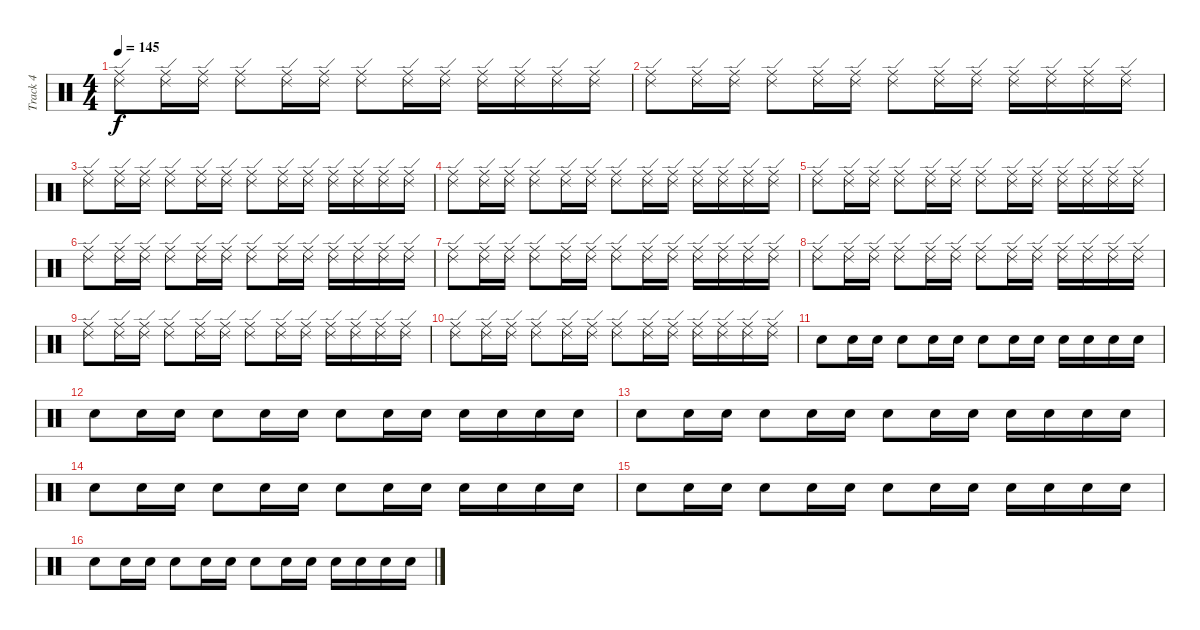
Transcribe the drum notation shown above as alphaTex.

\track ("Track 4" "Track 4") {instrument percussion}
\staff {score}
\articulation defaults
\ts (4 4)
\tempo 145
\clef neutral
\ks c
("Ride (middle)" "Ride (edge) 2").8{dy f} ("Ride (middle)" "Ride (edge) 2").16 ("Ride (middle)" "Ride (edge) 2").16 ("Ride (middle)" "Ride (edge) 2").8 ("Ride (middle)" "Ride (edge) 2").16 ("Ride (middle)" "Ride (edge) 2").16 ("Ride (middle)" "Ride (edge) 2").8 ("Ride (middle)" "Ride (edge) 2").16 ("Ride (middle)" "Ride (edge) 2").16 ("Ride (middle)" "Ride (edge) 2").16 ("Ride (middle)" "Ride (edge) 2").16 ("Ride (middle)" "Ride (edge) 2").16 ("Ride (middle)" "Ride (edge) 2").16 |
("Ride (middle)" "Ride (edge) 2").8 ("Ride (middle)" "Ride (edge) 2").16 ("Ride (middle)" "Ride (edge) 2").16 ("Ride (middle)" "Ride (edge) 2").8 ("Ride (middle)" "Ride (edge) 2").16 ("Ride (middle)" "Ride (edge) 2").16 ("Ride (middle)" "Ride (edge) 2").8 ("Ride (middle)" "Ride (edge) 2").16 ("Ride (middle)" "Ride (edge) 2").16 ("Ride (middle)" "Ride (edge) 2").16 ("Ride (middle)" "Ride (edge) 2").16 ("Ride (middle)" "Ride (edge) 2").16 ("Ride (middle)" "Ride (edge) 2").16 |
("Ride (middle)" "Ride (edge) 2").8 ("Ride (middle)" "Ride (edge) 2").16 ("Ride (middle)" "Ride (edge) 2").16 ("Ride (middle)" "Ride (edge) 2").8 ("Ride (middle)" "Ride (edge) 2").16 ("Ride (middle)" "Ride (edge) 2").16 ("Ride (middle)" "Ride (edge) 2").8 ("Ride (middle)" "Ride (edge) 2").16 ("Ride (middle)" "Ride (edge) 2").16 ("Ride (middle)" "Ride (edge) 2").16 ("Ride (middle)" "Ride (edge) 2").16 ("Ride (middle)" "Ride (edge) 2").16 ("Ride (middle)" "Ride (edge) 2").16 |
("Ride (middle)" "Ride (edge) 2").8 ("Ride (middle)" "Ride (edge) 2").16 ("Ride (middle)" "Ride (edge) 2").16 ("Ride (middle)" "Ride (edge) 2").8 ("Ride (middle)" "Ride (edge) 2").16 ("Ride (middle)" "Ride (edge) 2").16 ("Ride (middle)" "Ride (edge) 2").8 ("Ride (middle)" "Ride (edge) 2").16 ("Ride (middle)" "Ride (edge) 2").16 ("Ride (middle)" "Ride (edge) 2").16 ("Ride (middle)" "Ride (edge) 2").16 ("Ride (middle)" "Ride (edge) 2").16 ("Ride (middle)" "Ride (edge) 2").16 |
("Ride (middle)" "Ride (edge) 2").8 ("Ride (middle)" "Ride (edge) 2").16 ("Ride (middle)" "Ride (edge) 2").16 ("Ride (middle)" "Ride (edge) 2").8 ("Ride (middle)" "Ride (edge) 2").16 ("Ride (middle)" "Ride (edge) 2").16 ("Ride (middle)" "Ride (edge) 2").8 ("Ride (middle)" "Ride (edge) 2").16 ("Ride (middle)" "Ride (edge) 2").16 ("Ride (middle)" "Ride (edge) 2").16 ("Ride (middle)" "Ride (edge) 2").16 ("Ride (middle)" "Ride (edge) 2").16 ("Ride (middle)" "Ride (edge) 2").16 |
("Ride (middle)" "Ride (edge) 2").8 ("Ride (middle)" "Ride (edge) 2").16 ("Ride (middle)" "Ride (edge) 2").16 ("Ride (middle)" "Ride (edge) 2").8 ("Ride (middle)" "Ride (edge) 2").16 ("Ride (middle)" "Ride (edge) 2").16 ("Ride (middle)" "Ride (edge) 2").8 ("Ride (middle)" "Ride (edge) 2").16 ("Ride (middle)" "Ride (edge) 2").16 ("Ride (middle)" "Ride (edge) 2").16 ("Ride (middle)" "Ride (edge) 2").16 ("Ride (middle)" "Ride (edge) 2").16 ("Ride (middle)" "Ride (edge) 2").16 |
("Ride (middle)" "Ride (edge) 2").8 ("Ride (middle)" "Ride (edge) 2").16 ("Ride (middle)" "Ride (edge) 2").16 ("Ride (middle)" "Ride (edge) 2").8 ("Ride (middle)" "Ride (edge) 2").16 ("Ride (middle)" "Ride (edge) 2").16 ("Ride (middle)" "Ride (edge) 2").8 ("Ride (middle)" "Ride (edge) 2").16 ("Ride (middle)" "Ride (edge) 2").16 ("Ride (middle)" "Ride (edge) 2").16 ("Ride (middle)" "Ride (edge) 2").16 ("Ride (middle)" "Ride (edge) 2").16 ("Ride (middle)" "Ride (edge) 2").16 |
("Ride (middle)" "Ride (edge) 2").8 ("Ride (middle)" "Ride (edge) 2").16 ("Ride (middle)" "Ride (edge) 2").16 ("Ride (middle)" "Ride (edge) 2").8 ("Ride (middle)" "Ride (edge) 2").16 ("Ride (middle)" "Ride (edge) 2").16 ("Ride (middle)" "Ride (edge) 2").8 ("Ride (middle)" "Ride (edge) 2").16 ("Ride (middle)" "Ride (edge) 2").16 ("Ride (middle)" "Ride (edge) 2").16 ("Ride (middle)" "Ride (edge) 2").16 ("Ride (middle)" "Ride (edge) 2").16 ("Ride (middle)" "Ride (edge) 2").16 |
("Ride (middle)" "Ride (edge) 2").8 ("Ride (middle)" "Ride (edge) 2").16 ("Ride (middle)" "Ride (edge) 2").16 ("Ride (middle)" "Ride (edge) 2").8 ("Ride (middle)" "Ride (edge) 2").16 ("Ride (middle)" "Ride (edge) 2").16 ("Ride (middle)" "Ride (edge) 2").8 ("Ride (middle)" "Ride (edge) 2").16 ("Ride (middle)" "Ride (edge) 2").16 ("Ride (middle)" "Ride (edge) 2").16 ("Ride (middle)" "Ride (edge) 2").16 ("Ride (middle)" "Ride (edge) 2").16 ("Ride (middle)" "Ride (edge) 2").16 |
("Ride (middle)" "Ride (edge) 2").8 ("Ride (middle)" "Ride (edge) 2").16 ("Ride (middle)" "Ride (edge) 2").16 ("Ride (middle)" "Ride (edge) 2").8 ("Ride (middle)" "Ride (edge) 2").16 ("Ride (middle)" "Ride (edge) 2").16 ("Ride (middle)" "Ride (edge) 2").8 ("Ride (middle)" "Ride (edge) 2").16 ("Ride (middle)" "Ride (edge) 2").16 ("Ride (middle)" "Ride (edge) 2").16 ("Ride (middle)" "Ride (edge) 2").16 ("Ride (middle)" "Ride (edge) 2").16 ("Ride (middle)" "Ride (edge) 2").16 |
"Snare (hit) 2".8 "Snare (hit) 2".16 "Snare (hit) 2".16 "Snare (hit) 2".8 "Snare (hit) 2".16 "Snare (hit) 2".16 "Snare (hit) 2".8 "Snare (hit) 2".16 "Snare (hit) 2".16 "Snare (hit) 2".16 "Snare (hit) 2".16 "Snare (hit) 2".16 "Snare (hit) 2".16 |
"Snare (hit) 2".8 "Snare (hit) 2".16 "Snare (hit) 2".16 "Snare (hit) 2".8 "Snare (hit) 2".16 "Snare (hit) 2".16 "Snare (hit) 2".8 "Snare (hit) 2".16 "Snare (hit) 2".16 "Snare (hit) 2".16 "Snare (hit) 2".16 "Snare (hit) 2".16 "Snare (hit) 2".16 |
"Snare (hit) 2".8 "Snare (hit) 2".16 "Snare (hit) 2".16 "Snare (hit) 2".8 "Snare (hit) 2".16 "Snare (hit) 2".16 "Snare (hit) 2".8 "Snare (hit) 2".16 "Snare (hit) 2".16 "Snare (hit) 2".16 "Snare (hit) 2".16 "Snare (hit) 2".16 "Snare (hit) 2".16 |
"Snare (hit) 2".8 "Snare (hit) 2".16 "Snare (hit) 2".16 "Snare (hit) 2".8 "Snare (hit) 2".16 "Snare (hit) 2".16 "Snare (hit) 2".8 "Snare (hit) 2".16 "Snare (hit) 2".16 "Snare (hit) 2".16 "Snare (hit) 2".16 "Snare (hit) 2".16 "Snare (hit) 2".16 |
"Snare (hit) 2".8 "Snare (hit) 2".16 "Snare (hit) 2".16 "Snare (hit) 2".8 "Snare (hit) 2".16 "Snare (hit) 2".16 "Snare (hit) 2".8 "Snare (hit) 2".16 "Snare (hit) 2".16 "Snare (hit) 2".16 "Snare (hit) 2".16 "Snare (hit) 2".16 "Snare (hit) 2".16 |
"Snare (hit) 2".8 "Snare (hit) 2".16 "Snare (hit) 2".16 "Snare (hit) 2".8 "Snare (hit) 2".16 "Snare (hit) 2".16 "Snare (hit) 2".8 "Snare (hit) 2".16 "Snare (hit) 2".16 "Snare (hit) 2".16 "Snare (hit) 2".16 "Snare (hit) 2".16 "Snare (hit) 2".16
